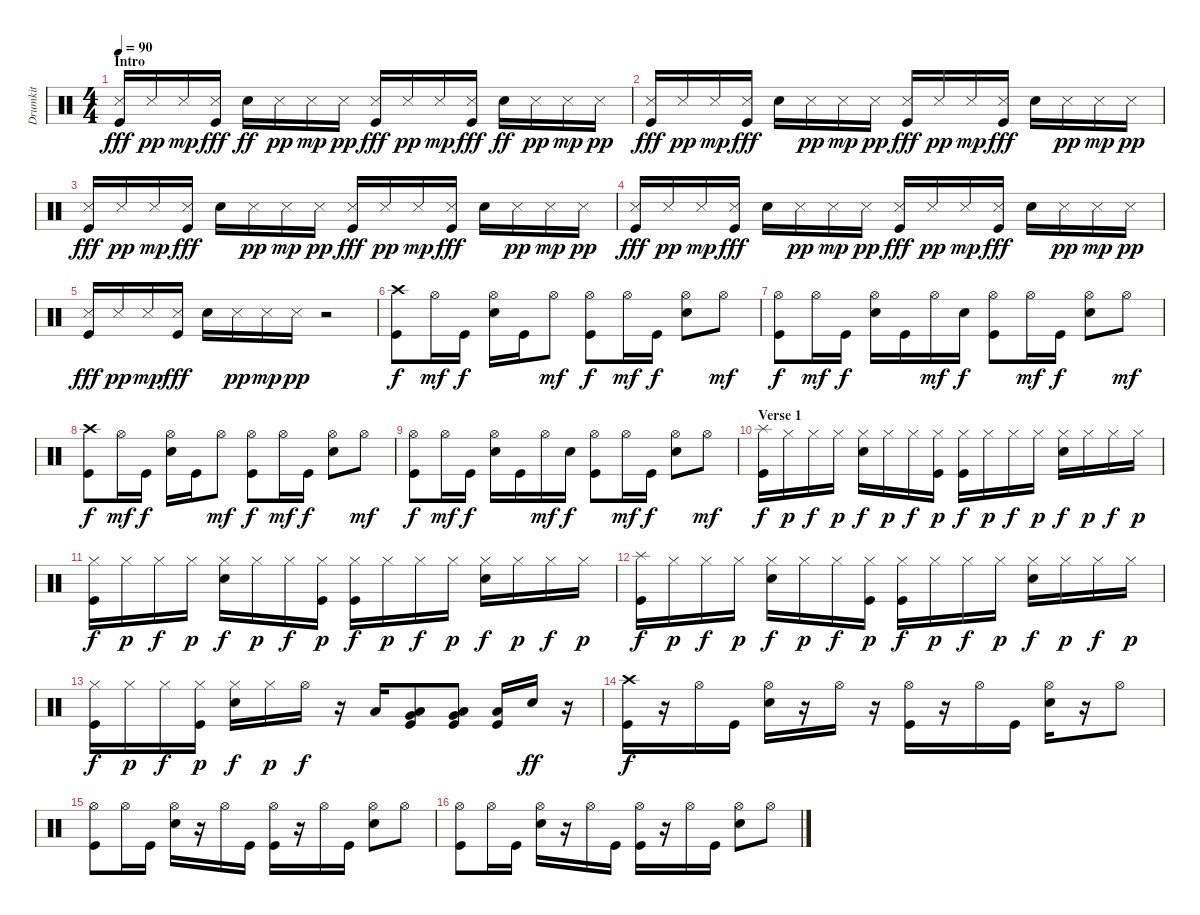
\track ("Drumkit" "Drumkit") {instrument percussion}
\staff {score}
\articulation defaults
\ts (4 4)
\section ("" "Intro")
\tempo 90
\clef neutral
\ks c
("Kick (hit)" "Snare (side stick) 3").16{dy fff} "Snare (side stick) 3".16{dy pp} "Snare (side stick) 3".16{dy mp} ("Kick (hit)" "Snare (side stick) 3").16{dy fff} "Snare (hit) 2".16{dy ff} "Snare (side stick) 3".16{dy pp} "Snare (side stick) 3".16{dy mp} "Snare (side stick) 3".16{dy pp} ("Kick (hit)" "Snare (side stick) 3").16{dy fff} "Snare (side stick) 3".16{dy pp} "Snare (side stick) 3".16{dy mp} ("Kick (hit)" "Snare (side stick) 3").16{dy fff} "Snare (hit) 2".16{dy ff} "Snare (side stick) 3".16{dy pp} "Snare (side stick) 3".16{dy mp} "Snare (side stick) 3".16{dy pp} |
("Kick (hit)" "Snare (side stick) 3").16{dy fff} "Snare (side stick) 3".16{dy pp} "Snare (side stick) 3".16{dy mp} ("Kick (hit)" "Snare (side stick) 3").16{dy fff} "Snare (hit) 2".16 "Snare (side stick) 3".16{dy pp} "Snare (side stick) 3".16{dy mp} "Snare (side stick) 3".16{dy pp} ("Kick (hit)" "Snare (side stick) 3").16{dy fff} "Snare (side stick) 3".16{dy pp} "Snare (side stick) 3".16{dy mp} ("Kick (hit)" "Snare (side stick) 3").16{dy fff} "Snare (hit) 2".16 "Snare (side stick) 3".16{dy pp} "Snare (side stick) 3".16{dy mp} "Snare (side stick) 3".16{dy pp} |
("Kick (hit)" "Snare (side stick) 3").16{dy fff} "Snare (side stick) 3".16{dy pp} "Snare (side stick) 3".16{dy mp} ("Kick (hit)" "Snare (side stick) 3").16{dy fff} "Snare (hit) 2".16 "Snare (side stick) 3".16{dy pp} "Snare (side stick) 3".16{dy mp} "Snare (side stick) 3".16{dy pp} ("Kick (hit)" "Snare (side stick) 3").16{dy fff} "Snare (side stick) 3".16{dy pp} "Snare (side stick) 3".16{dy mp} ("Kick (hit)" "Snare (side stick) 3").16{dy fff} "Snare (hit) 2".16 "Snare (side stick) 3".16{dy pp} "Snare (side stick) 3".16{dy mp} "Snare (side stick) 3".16{dy pp} |
("Kick (hit)" "Snare (side stick) 3").16{dy fff} "Snare (side stick) 3".16{dy pp} "Snare (side stick) 3".16{dy mp} ("Kick (hit)" "Snare (side stick) 3").16{dy fff} "Snare (hit) 2".16 "Snare (side stick) 3".16{dy pp} "Snare (side stick) 3".16{dy mp} "Snare (side stick) 3".16{dy pp} ("Kick (hit)" "Snare (side stick) 3").16{dy fff} "Snare (side stick) 3".16{dy pp} "Snare (side stick) 3".16{dy mp} ("Kick (hit)" "Snare (side stick) 3").16{dy fff} "Snare (hit) 2".16 "Snare (side stick) 3".16{dy pp} "Snare (side stick) 3".16{dy mp} "Snare (side stick) 3".16{dy pp} |
("Kick (hit)" "Snare (side stick) 3").16{dy fff} "Snare (side stick) 3".16{dy pp} "Snare (side stick) 3".16{dy mp} ("Kick (hit)" "Snare (side stick) 3").16{dy fff} "Snare (hit) 2".16 "Snare (side stick) 3".16{dy pp} "Snare (side stick) 3".16{dy mp} "Snare (side stick) 3".16{dy pp} r.2 |
("Crash high (hit)" "Kick (hit)").8{dy f} "Hi-Hat (open)".16{dy mf} "Kick (hit)".16{dy f} ("Hi-Hat (open)" "Snare (hit) 2").16 "Kick (hit)".16 "Hi-Hat (open)".8{dy mf} ("Hi-Hat (open)" "Kick (hit)").8{dy f} "Hi-Hat (open)".16{dy mf} "Kick (hit)".16{dy f} ("Hi-Hat (open)" "Snare (hit) 2").8 "Hi-Hat (open)".8{dy mf} |
("Hi-Hat (open)" "Kick (hit)").8{dy f} "Hi-Hat (open)".16{dy mf} "Kick (hit)".16{dy f} ("Hi-Hat (open)" "Snare (hit) 2").16 "Kick (hit)".16 "Hi-Hat (open)".16{dy mf} "Snare (hit) 2".16{dy f} ("Hi-Hat (open)" "Kick (hit)").8 "Hi-Hat (open)".16{dy mf} "Kick (hit)".16{dy f} ("Hi-Hat (open)" "Snare (hit) 2").8 "Hi-Hat (open)".8{dy mf} |
("Crash high (hit)" "Kick (hit)").8{dy f} "Hi-Hat (open)".16{dy mf} "Kick (hit)".16{dy f} ("Hi-Hat (open)" "Snare (hit) 2").16 "Kick (hit)".16 "Hi-Hat (open)".8{dy mf} ("Hi-Hat (open)" "Kick (hit)").8{dy f} "Hi-Hat (open)".16{dy mf} "Kick (hit)".16{dy f} ("Hi-Hat (open)" "Snare (hit) 2").8 "Hi-Hat (open)".8{dy mf} |
("Hi-Hat (open)" "Kick (hit)").8{dy f} "Hi-Hat (open)".16{dy mf} "Kick (hit)".16{dy f} ("Hi-Hat (open)" "Snare (hit) 2").16 "Kick (hit)".16 "Hi-Hat (open)".16{dy mf} "Snare (hit) 2".16{dy f} ("Hi-Hat (open)" "Kick (hit)").8 "Hi-Hat (open)".16{dy mf} "Kick (hit)".16{dy f} ("Hi-Hat (open)" "Snare (hit) 2").8 "Hi-Hat (open)".8{dy mf} |
\section ("" "Verse 1")
("Splash (hit)" "Kick (hit)").16{dy f} "Hi-Hat (closed)".16{dy p} "Hi-Hat (closed)".16{dy f} "Hi-Hat (closed)".16{dy p} ("Hi-Hat (closed)" "Snare (hit) 2").16{dy f} "Hi-Hat (closed)".16{dy p} "Hi-Hat (closed)".16{dy f} ("Hi-Hat (closed)" "Kick (hit)").16{dy p} ("Hi-Hat (closed)" "Kick (hit)").16{dy f} "Hi-Hat (closed)".16{dy p} "Hi-Hat (closed)".16{dy f} "Hi-Hat (closed)".16{dy p} ("Hi-Hat (closed)" "Snare (hit) 2").16{dy f} "Hi-Hat (closed)".16{dy p} "Hi-Hat (closed)".16{dy f} "Hi-Hat (closed)".16{dy p} |
("Hi-Hat (closed)" "Kick (hit)").16{dy f} "Hi-Hat (closed)".16{dy p} "Hi-Hat (closed)".16{dy f} "Hi-Hat (closed)".16{dy p} ("Hi-Hat (closed)" "Snare (hit) 2").16{dy f} "Hi-Hat (closed)".16{dy p} "Hi-Hat (closed)".16{dy f} ("Hi-Hat (closed)" "Kick (hit)").16{dy p} ("Hi-Hat (closed)" "Kick (hit)").16{dy f} "Hi-Hat (closed)".16{dy p} "Hi-Hat (closed)".16{dy f} "Hi-Hat (closed)".16{dy p} ("Hi-Hat (closed)" "Snare (hit) 2").16{dy f} "Hi-Hat (closed)".16{dy p} "Hi-Hat (closed)".16{dy f} "Hi-Hat (closed)".16{dy p} |
("Splash (hit)" "Kick (hit)").16{dy f} "Hi-Hat (closed)".16{dy p} "Hi-Hat (closed)".16{dy f} "Hi-Hat (closed)".16{dy p} ("Hi-Hat (closed)" "Snare (hit) 2").16{dy f} "Hi-Hat (closed)".16{dy p} "Hi-Hat (closed)".16{dy f} ("Hi-Hat (closed)" "Kick (hit)").16{dy p} ("Hi-Hat (closed)" "Kick (hit)").16{dy f} "Hi-Hat (closed)".16{dy p} "Hi-Hat (closed)".16{dy f} "Hi-Hat (closed)".16{dy p} ("Hi-Hat (closed)" "Snare (hit) 2").16{dy f} "Hi-Hat (closed)".16{dy p} "Hi-Hat (closed)".16{dy f} "Hi-Hat (closed)".16{dy p} |
("Hi-Hat (closed)" "Kick (hit)").16{dy f} "Hi-Hat (closed)".16{dy p} "Hi-Hat (closed)".16{dy f} ("Hi-Hat (closed)" "Kick (hit)").16{dy p} ("Hi-Hat (closed)" "Snare (hit) 2").16{dy f} "Hi-Hat (closed)".16{dy p} "Hi-Hat (open)".16{dy f} r.16 "Low Tom (hit)".16 ("Low Floor Tom (hit)" "Very Low Tom (hit)" "Kick (hit)").8 ("Low Floor Tom (hit)" "Very Low Tom (hit)" "Kick (hit)").8 ("Low Floor Tom (hit)" "Kick (hit)").16 "Snare (hit) 2".16{dy ff} r.16 |
("Crash high (hit)" "Kick (hit)").16{dy f} r.16 "Hi-Hat (open)".16 "Kick (hit)".16 ("Hi-Hat (open)" "Snare (hit) 2").16 r.16 "Hi-Hat (open)".16 r.16 ("Hi-Hat (open)" "Kick (hit)").16 r.16 "Hi-Hat (open)".16 "Kick (hit)".16 ("Hi-Hat (open)" "Snare (hit) 2").16 r.16 "Hi-Hat (open)".8 |
("Hi-Hat (open)" "Kick (hit)").8 "Hi-Hat (open)".16 "Kick (hit)".16 ("Hi-Hat (open)" "Snare (hit) 2").16 r.16 "Hi-Hat (open)".16 "Kick (hit)".16 ("Hi-Hat (open)" "Kick (hit)").16 r.16 "Hi-Hat (open)".16 "Kick (hit)".16 ("Hi-Hat (open)" "Snare (hit) 2").8 "Hi-Hat (open)".8 |
("Hi-Hat (open)" "Kick (hit)").8 "Hi-Hat (open)".16 "Kick (hit)".16 ("Hi-Hat (open)" "Snare (hit) 2").16 r.16 "Hi-Hat (open)".16 "Kick (hit)".16 ("Hi-Hat (open)" "Kick (hit)").16 r.16 "Hi-Hat (open)".16 "Kick (hit)".16 ("Hi-Hat (open)" "Snare (hit) 2").8 "Hi-Hat (open)".8
